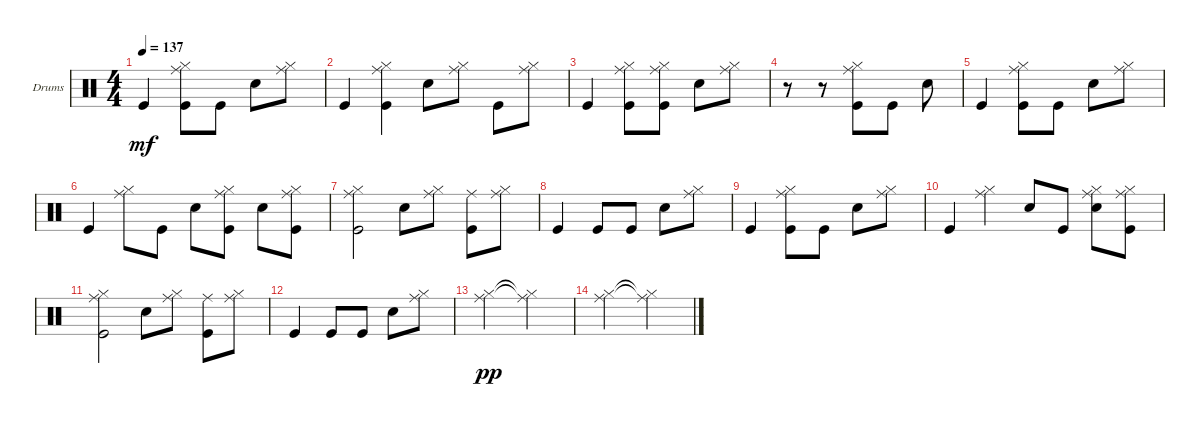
\defaultSystemsLayout 4
\bracketExtendMode groupsimilarinstruments
\firstSystemTrackNameOrientation horizontal
\otherSystemsTrackNameOrientation horizontal
\track ("Drumkit" "Drums") {instrument percussion}
\staff {score}
\articulation defaults
\ts (4 4)
\tempo 137
\clef neutral
\ks c "Kick (hit)".4{dy mf}
("Kick (hit)" "Ride (middle)" "Hi-Hat (closed)").8 "Kick (hit)".8 "Snare (hit) 2".8 ("Hi-Hat (closed)" "Ride (middle)").8 |
"Kick (hit)".4 ("Kick (hit)" "Ride (middle)" "Hi-Hat (closed)").4 "Snare (hit) 2".8 ("Ride (middle)" "Hi-Hat (closed)").8 "Kick (hit)".8 ("Ride (middle)" "Hi-Hat (closed)").8 |
"Kick (hit)".4 ("Kick (hit)" "Ride (middle)" "Hi-Hat (closed)").8 ("Kick (hit)" "Ride (middle)" "Hi-Hat (closed)").8 "Snare (hit) 2".8 ("Hi-Hat (closed)" "Ride (middle)").8 |
r.8 r.8 ("Ride (middle)" "Hi-Hat (closed)" "Kick (hit)").8 "Kick (hit)".8 "Snare (hit) 2".8 |
"Kick (hit)".4 ("Kick (hit)" "Ride (middle)" "Hi-Hat (closed)").8 "Kick (hit)".8 "Snare (hit) 2".8 ("Ride (middle)" "Hi-Hat (closed)").8 |
"Kick (hit)".4 ("Ride (middle)" "Hi-Hat (closed)").8 "Kick (hit)".8 "Snare (hit) 2".8 ("Ride (middle)" "Hi-Hat (closed)" "Kick (hit)").8 "Snare (hit) 2".8 ("Ride (middle)" "Hi-Hat (closed)" "Kick (hit)").8 |
("Kick (hit)" "Ride (middle)" "Hi-Hat (closed)").2 "Snare (hit) 2".8 ("Hi-Hat (closed)" "Ride (middle)").8 ("Kick (hit)" "Ride (middle)").8 ("Hi-Hat (closed)" "Ride (middle)").8 |
"Kick (hit)".4 "Kick (hit)".8 "Kick (hit)".8 "Snare (hit) 2".8 ("Hi-Hat (closed)" "Ride (middle)").8 |
"Kick (hit)".4 ("Kick (hit)" "Ride (middle)" "Hi-Hat (closed)").8 "Kick (hit)".8 "Snare (hit) 2".8 ("Hi-Hat (closed)" "Ride (middle)").8 |
"Kick (hit)".4 ("Ride (middle)" "Hi-Hat (closed)").4 "Snare (hit) 2".8 "Kick (hit)".8 ("Hi-Hat (closed)" "Ride (middle)" "Snare (hit) 2").8 ("Ride (middle)" "Hi-Hat (closed)" "Kick (hit)").8 |
("Kick (hit)" "Ride (middle)" "Hi-Hat (closed)").2 "Snare (hit) 2".8 ("Hi-Hat (closed)" "Ride (middle)").8 ("Kick (hit)" "Ride (middle)").8 ("Hi-Hat (closed)" "Ride (middle)").8 |
"Kick (hit)".4 "Kick (hit)".8 "Kick (hit)".8 "Snare (hit) 2".8 ("Hi-Hat (closed)" "Ride (middle)").8 |
("Ride (middle)" "Hi-Hat (closed)").2{dy pp} ("Ride (middle)"{t} "Hi-Hat (closed)"{t}).2 |
("Ride (middle)" "Hi-Hat (closed)").2 ("Ride (middle)"{t} "Hi-Hat (closed)"{t}).2
